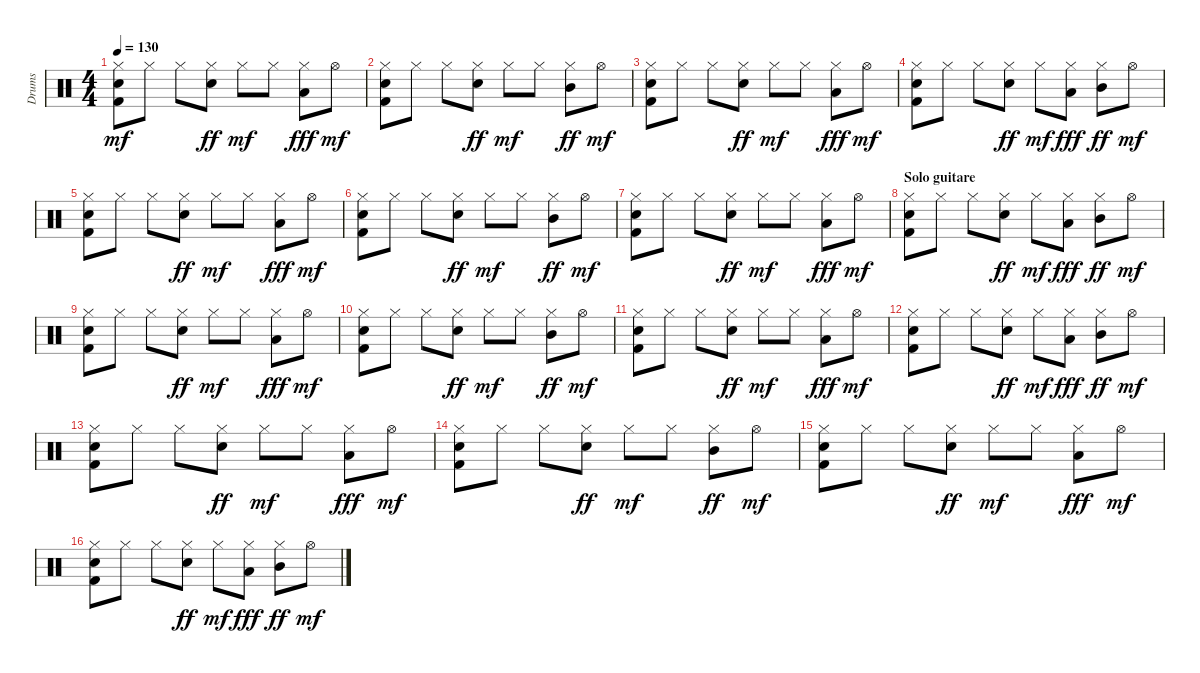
\track ("Drums" "Drums") {instrument percussion}
\staff {score}
\articulation defaults
\ts (4 4)
\tempo 130
\clef neutral
\ks c
("Hi-Hat (closed)" "Snare (hit) 2" "Kick (hit) 2").8{dy mf} "Hi-Hat (closed)".8 "Hi-Hat (closed)".8 ("Hi-Hat (closed)" "Electric Snare (hit)").8{dy ff} "Hi-Hat (closed)".8{dy mf} "Hi-Hat (closed)".8 ("Hi-Hat (closed)" "Low Tom (hit)").8{dy fff} "Hi-Hat (open)".8{dy mf} |
("Hi-Hat (closed)" "Electric Snare (hit)" "Kick (hit) 2").8 "Hi-Hat (closed)".8 "Hi-Hat (closed)".8 ("Hi-Hat (closed)" "Electric Snare (hit)").8{dy ff} "Hi-Hat (closed)".8{dy mf} "Hi-Hat (closed)".8 ("Hi-Hat (closed)" "Mid Tom (hit)").8{dy ff} "Hi-Hat (open)".8{dy mf} |
("Hi-Hat (closed)" "Snare (hit) 2" "Kick (hit) 2").8 "Hi-Hat (closed)".8 "Hi-Hat (closed)".8 ("Hi-Hat (closed)" "Electric Snare (hit)").8{dy ff} "Hi-Hat (closed)".8{dy mf} "Hi-Hat (closed)".8 ("Hi-Hat (closed)" "Low Tom (hit)").8{dy fff} "Hi-Hat (open)".8{dy mf} |
("Hi-Hat (closed)" "Electric Snare (hit)" "Kick (hit) 2").8 "Hi-Hat (closed)".8 "Hi-Hat (closed)".8 ("Hi-Hat (closed)" "Electric Snare (hit)").8{dy ff} "Hi-Hat (closed)".8{dy mf} ("Hi-Hat (closed)" "Low Tom (hit)").8{dy fff} ("Hi-Hat (closed)" "Mid Tom (hit)").8{dy ff} "Hi-Hat (open)".8{dy mf} |
("Hi-Hat (closed)" "Snare (hit) 2" "Kick (hit) 2").8 "Hi-Hat (closed)".8 "Hi-Hat (closed)".8 ("Hi-Hat (closed)" "Electric Snare (hit)").8{dy ff} "Hi-Hat (closed)".8{dy mf} "Hi-Hat (closed)".8 ("Hi-Hat (closed)" "Low Tom (hit)").8{dy fff} "Hi-Hat (open)".8{dy mf} |
("Hi-Hat (closed)" "Electric Snare (hit)" "Kick (hit) 2").8 "Hi-Hat (closed)".8 "Hi-Hat (closed)".8 ("Hi-Hat (closed)" "Electric Snare (hit)").8{dy ff} "Hi-Hat (closed)".8{dy mf} "Hi-Hat (closed)".8 ("Hi-Hat (closed)" "Mid Tom (hit)").8{dy ff} "Hi-Hat (open)".8{dy mf} |
("Hi-Hat (closed)" "Snare (hit) 2" "Kick (hit) 2").8 "Hi-Hat (closed)".8 "Hi-Hat (closed)".8 ("Hi-Hat (closed)" "Electric Snare (hit)").8{dy ff} "Hi-Hat (closed)".8{dy mf} "Hi-Hat (closed)".8 ("Hi-Hat (closed)" "Low Tom (hit)").8{dy fff} "Hi-Hat (open)".8{dy mf} |
\section ("" "Solo guitare")
("Hi-Hat (closed)" "Electric Snare (hit)" "Kick (hit) 2").8 "Hi-Hat (closed)".8 "Hi-Hat (closed)".8 ("Hi-Hat (closed)" "Electric Snare (hit)").8{dy ff} "Hi-Hat (closed)".8{dy mf} ("Hi-Hat (closed)" "Low Tom (hit)").8{dy fff} ("Hi-Hat (closed)" "Mid Tom (hit)").8{dy ff} "Hi-Hat (open)".8{dy mf} |
("Hi-Hat (closed)" "Snare (hit) 2" "Kick (hit) 2").8 "Hi-Hat (closed)".8 "Hi-Hat (closed)".8 ("Hi-Hat (closed)" "Electric Snare (hit)").8{dy ff} "Hi-Hat (closed)".8{dy mf} "Hi-Hat (closed)".8 ("Hi-Hat (closed)" "Low Tom (hit)").8{dy fff} "Hi-Hat (open)".8{dy mf} |
("Hi-Hat (closed)" "Electric Snare (hit)" "Kick (hit) 2").8 "Hi-Hat (closed)".8 "Hi-Hat (closed)".8 ("Hi-Hat (closed)" "Electric Snare (hit)").8{dy ff} "Hi-Hat (closed)".8{dy mf} "Hi-Hat (closed)".8 ("Hi-Hat (closed)" "Mid Tom (hit)").8{dy ff} "Hi-Hat (open)".8{dy mf} |
("Hi-Hat (closed)" "Snare (hit) 2" "Kick (hit) 2").8 "Hi-Hat (closed)".8 "Hi-Hat (closed)".8 ("Hi-Hat (closed)" "Electric Snare (hit)").8{dy ff} "Hi-Hat (closed)".8{dy mf} "Hi-Hat (closed)".8 ("Hi-Hat (closed)" "Low Tom (hit)").8{dy fff} "Hi-Hat (open)".8{dy mf} |
("Hi-Hat (closed)" "Electric Snare (hit)" "Kick (hit) 2").8 "Hi-Hat (closed)".8 "Hi-Hat (closed)".8 ("Hi-Hat (closed)" "Electric Snare (hit)").8{dy ff} "Hi-Hat (closed)".8{dy mf} ("Hi-Hat (closed)" "Low Tom (hit)").8{dy fff} ("Hi-Hat (closed)" "Mid Tom (hit)").8{dy ff} "Hi-Hat (open)".8{dy mf} |
("Hi-Hat (closed)" "Snare (hit) 2" "Kick (hit) 2").8 "Hi-Hat (closed)".8 "Hi-Hat (closed)".8 ("Hi-Hat (closed)" "Electric Snare (hit)").8{dy ff} "Hi-Hat (closed)".8{dy mf} "Hi-Hat (closed)".8 ("Hi-Hat (closed)" "Low Tom (hit)").8{dy fff} "Hi-Hat (open)".8{dy mf} |
("Hi-Hat (closed)" "Electric Snare (hit)" "Kick (hit) 2").8 "Hi-Hat (closed)".8 "Hi-Hat (closed)".8 ("Hi-Hat (closed)" "Electric Snare (hit)").8{dy ff} "Hi-Hat (closed)".8{dy mf} "Hi-Hat (closed)".8 ("Hi-Hat (closed)" "Mid Tom (hit)").8{dy ff} "Hi-Hat (open)".8{dy mf} |
("Hi-Hat (closed)" "Snare (hit) 2" "Kick (hit) 2").8 "Hi-Hat (closed)".8 "Hi-Hat (closed)".8 ("Hi-Hat (closed)" "Electric Snare (hit)").8{dy ff} "Hi-Hat (closed)".8{dy mf} "Hi-Hat (closed)".8 ("Hi-Hat (closed)" "Low Tom (hit)").8{dy fff} "Hi-Hat (open)".8{dy mf} |
("Hi-Hat (closed)" "Electric Snare (hit)" "Kick (hit) 2").8 "Hi-Hat (closed)".8 "Hi-Hat (closed)".8 ("Hi-Hat (closed)" "Electric Snare (hit)").8{dy ff} "Hi-Hat (closed)".8{dy mf} ("Hi-Hat (closed)" "Low Tom (hit)").8{dy fff} ("Hi-Hat (closed)" "Mid Tom (hit)").8{dy ff} "Hi-Hat (open)".8{dy mf}
